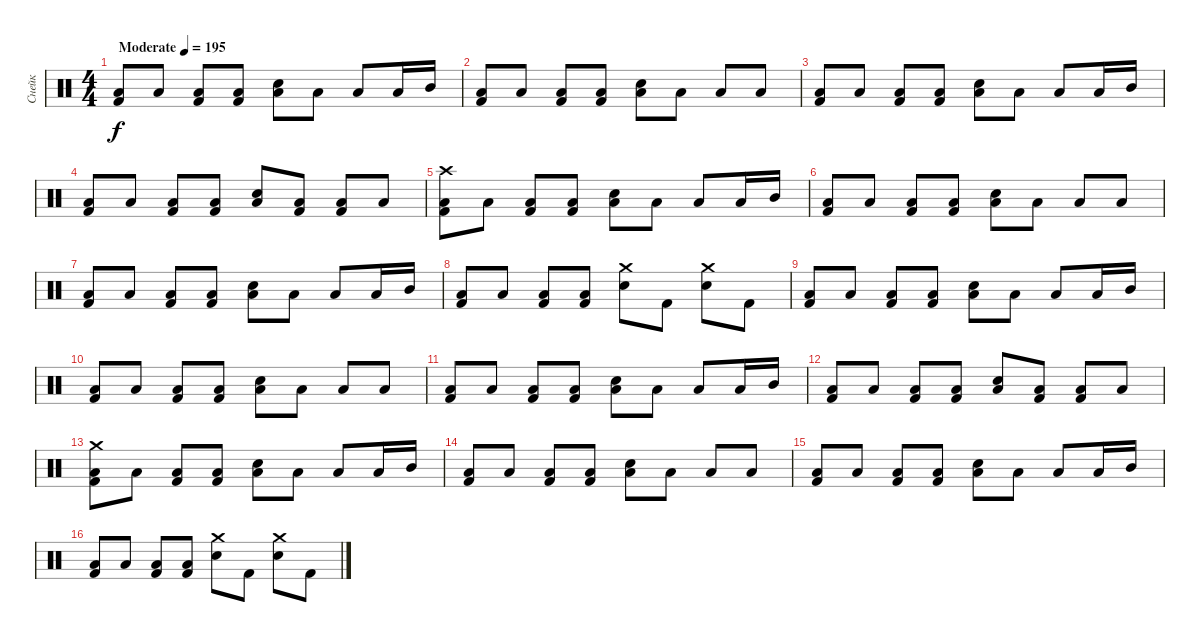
\track ("Снейк" "Снейк") {instrument percussion}
\staff {score}
\articulation defaults
\ts (4 4)
\tempo (195 "Moderate")
\clef neutral
\ks c
("Kick (hit) 2" "Low Floor Tom (hit)").8{dy f} "Low Floor Tom (hit)".8 ("Kick (hit) 2" "Low Floor Tom (hit)").8 ("Kick (hit) 2" "Low Floor Tom (hit)").8 ("Electric Snare (hit)" "Low Floor Tom (hit)").8 "Low Floor Tom (hit)".8 "Low Floor Tom (hit)".8 "Low Floor Tom (hit)".16 "Mid Tom (hit)".16 |
("Kick (hit) 2" "Low Floor Tom (hit)").8 "Low Floor Tom (hit)".8 ("Kick (hit) 2" "Low Floor Tom (hit)").8 ("Kick (hit) 2" "Low Floor Tom (hit)").8 ("Electric Snare (hit)" "Low Floor Tom (hit)").8 "Low Floor Tom (hit)".8 "Low Floor Tom (hit)".8 "Low Floor Tom (hit)".8 |
("Kick (hit) 2" "Low Floor Tom (hit)").8 "Low Floor Tom (hit)".8 ("Kick (hit) 2" "Low Floor Tom (hit)").8 ("Kick (hit) 2" "Low Floor Tom (hit)").8 ("Electric Snare (hit)" "Low Floor Tom (hit)").8 "Low Floor Tom (hit)".8 "Low Floor Tom (hit)".8 "Low Floor Tom (hit)".16 "Mid Tom (hit)".16 |
("Kick (hit) 2" "Low Floor Tom (hit)").8 "Low Floor Tom (hit)".8 ("Kick (hit) 2" "Low Floor Tom (hit)").8 ("Kick (hit) 2" "Low Floor Tom (hit)").8 ("Electric Snare (hit)" "Low Floor Tom (hit)").8 ("Kick (hit) 2" "Low Floor Tom (hit)").8 ("Kick (hit) 2" "Low Floor Tom (hit)").8 "Low Floor Tom (hit)".8 |
("Crash high (hit)" "Kick (hit) 2" "Low Floor Tom (hit)").8 "Low Floor Tom (hit)".8 ("Kick (hit) 2" "Low Floor Tom (hit)").8 ("Kick (hit) 2" "Low Floor Tom (hit)").8 ("Electric Snare (hit)" "Low Floor Tom (hit)").8 "Low Floor Tom (hit)".8 "Low Floor Tom (hit)".8 "Low Floor Tom (hit)".16 "Mid Tom (hit)".16 |
("Kick (hit) 2" "Low Floor Tom (hit)").8 "Low Floor Tom (hit)".8 ("Kick (hit) 2" "Low Floor Tom (hit)").8 ("Kick (hit) 2" "Low Floor Tom (hit)").8 ("Electric Snare (hit)" "Low Floor Tom (hit)").8 "Low Floor Tom (hit)".8 "Low Floor Tom (hit)".8 "Low Floor Tom (hit)".8 |
("Kick (hit) 2" "Low Floor Tom (hit)").8 "Low Floor Tom (hit)".8 ("Kick (hit) 2" "Low Floor Tom (hit)").8 ("Kick (hit) 2" "Low Floor Tom (hit)").8 ("Electric Snare (hit)" "Low Floor Tom (hit)").8 "Low Floor Tom (hit)".8 "Low Floor Tom (hit)".8 "Low Floor Tom (hit)".16 "Mid Tom (hit)".16 |
("Kick (hit) 2" "Low Floor Tom (hit)").8 "Low Floor Tom (hit)".8 ("Kick (hit) 2" "Low Floor Tom (hit)").8 ("Kick (hit) 2" "Low Floor Tom (hit)").8 ("Electric Snare (hit)" "Crash medium (hit)").8 "Kick (hit) 2".8 ("Electric Snare (hit)" "Crash medium (hit)").8 "Kick (hit) 2".8 |
("Kick (hit) 2" "Low Floor Tom (hit)").8 "Low Floor Tom (hit)".8 ("Kick (hit) 2" "Low Floor Tom (hit)").8 ("Kick (hit) 2" "Low Floor Tom (hit)").8 ("Electric Snare (hit)" "Low Floor Tom (hit)").8 "Low Floor Tom (hit)".8 "Low Floor Tom (hit)".8 "Low Floor Tom (hit)".16 "Mid Tom (hit)".16 |
("Kick (hit) 2" "Low Floor Tom (hit)").8 "Low Floor Tom (hit)".8 ("Kick (hit) 2" "Low Floor Tom (hit)").8 ("Kick (hit) 2" "Low Floor Tom (hit)").8 ("Electric Snare (hit)" "Low Floor Tom (hit)").8 "Low Floor Tom (hit)".8 "Low Floor Tom (hit)".8 "Low Floor Tom (hit)".8 |
("Kick (hit) 2" "Low Floor Tom (hit)").8 "Low Floor Tom (hit)".8 ("Kick (hit) 2" "Low Floor Tom (hit)").8 ("Kick (hit) 2" "Low Floor Tom (hit)").8 ("Electric Snare (hit)" "Low Floor Tom (hit)").8 "Low Floor Tom (hit)".8 "Low Floor Tom (hit)".8 "Low Floor Tom (hit)".16 "Mid Tom (hit)".16 |
("Kick (hit) 2" "Low Floor Tom (hit)").8 "Low Floor Tom (hit)".8 ("Kick (hit) 2" "Low Floor Tom (hit)").8 ("Kick (hit) 2" "Low Floor Tom (hit)").8 ("Electric Snare (hit)" "Low Floor Tom (hit)").8 ("Kick (hit) 2" "Low Floor Tom (hit)").8 ("Kick (hit) 2" "Low Floor Tom (hit)").8 "Low Floor Tom (hit)".8 |
("Kick (hit) 2" "Crash medium (hit)" "Low Floor Tom (hit)").8 "Low Floor Tom (hit)".8 ("Kick (hit) 2" "Low Floor Tom (hit)").8 ("Kick (hit) 2" "Low Floor Tom (hit)").8 ("Electric Snare (hit)" "Low Floor Tom (hit)").8 "Low Floor Tom (hit)".8 "Low Floor Tom (hit)".8 "Low Floor Tom (hit)".16 "Mid Tom (hit)".16 |
("Kick (hit) 2" "Low Floor Tom (hit)").8 "Low Floor Tom (hit)".8 ("Kick (hit) 2" "Low Floor Tom (hit)").8 ("Kick (hit) 2" "Low Floor Tom (hit)").8 ("Electric Snare (hit)" "Low Floor Tom (hit)").8 "Low Floor Tom (hit)".8 "Low Floor Tom (hit)".8 "Low Floor Tom (hit)".8 |
("Kick (hit) 2" "Low Floor Tom (hit)").8 "Low Floor Tom (hit)".8 ("Kick (hit) 2" "Low Floor Tom (hit)").8 ("Kick (hit) 2" "Low Floor Tom (hit)").8 ("Electric Snare (hit)" "Low Floor Tom (hit)").8 "Low Floor Tom (hit)".8 "Low Floor Tom (hit)".8 "Low Floor Tom (hit)".16 "Mid Tom (hit)".16 |
("Kick (hit) 2" "Low Floor Tom (hit)").8 "Low Floor Tom (hit)".8 ("Kick (hit) 2" "Low Floor Tom (hit)").8 ("Kick (hit) 2" "Low Floor Tom (hit)").8 ("Electric Snare (hit)" "Crash medium (hit)").8 "Kick (hit) 2".8 ("Electric Snare (hit)" "Crash medium (hit)").8 "Kick (hit) 2".8
